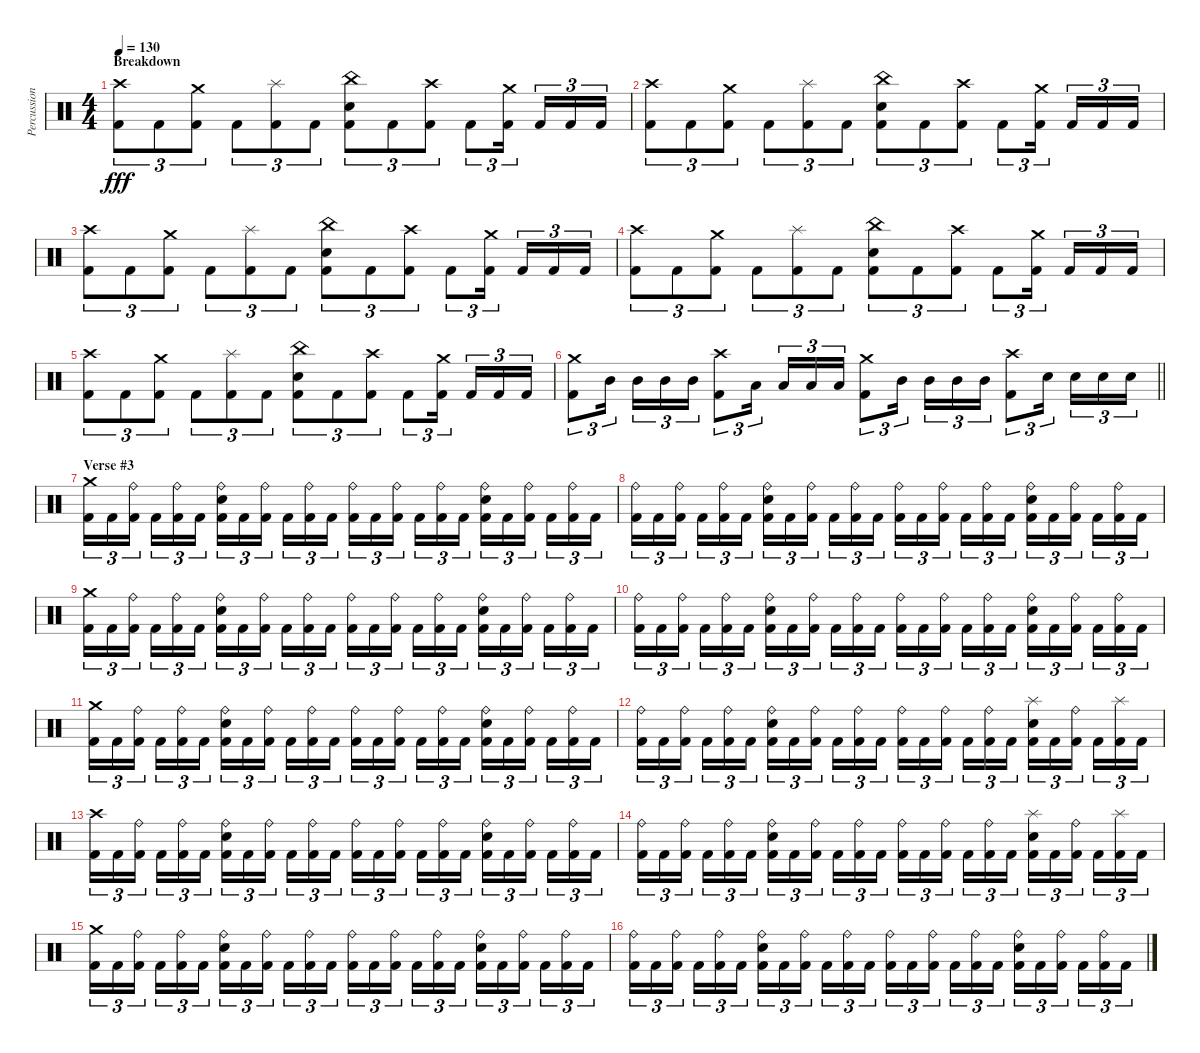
\track ("Percussions" "Percussion") {instrument percussion}
\staff {score}
\articulation defaults
\ts (4 4)
\section ("" "Breakdown")
\tempo 130
\clef neutral
\ks c
("Crash high (hit)" "Kick (hit) 2").8{tu (3 2) dy fff} "Kick (hit) 2".8{tu (3 2)} ("Crash medium (hit)" "Kick (hit) 2").8{tu (3 2)} "Kick (hit) 2".8{tu (3 2)} ("Splash (hit)" "Kick (hit) 2").8{tu (3 2)} "Kick (hit) 2".8{tu (3 2)} ("China (hit)" "Snare (hit) 2" "Kick (hit) 2").8{tu (3 2)} "Kick (hit) 2".8{tu (3 2)} ("Crash high (hit)" "Kick (hit) 2").8{tu (3 2)} "Kick (hit) 2".8{tu (3 2)} ("Crash medium (hit)" "Kick (hit) 2").16{tu (3 2) beam splitsecondary} "Kick (hit) 2".16{tu (3 2)} "Kick (hit) 2".16{tu (3 2)} "Kick (hit) 2".16{tu (3 2)} |
("Crash high (hit)" "Kick (hit) 2").8{tu (3 2)} "Kick (hit) 2".8{tu (3 2)} ("Crash medium (hit)" "Kick (hit) 2").8{tu (3 2)} "Kick (hit) 2".8{tu (3 2)} ("Splash (hit)" "Kick (hit) 2").8{tu (3 2)} "Kick (hit) 2".8{tu (3 2)} ("China (hit)" "Snare (hit) 2" "Kick (hit) 2").8{tu (3 2)} "Kick (hit) 2".8{tu (3 2)} ("Crash high (hit)" "Kick (hit) 2").8{tu (3 2)} "Kick (hit) 2".8{tu (3 2)} ("Crash medium (hit)" "Kick (hit) 2").16{tu (3 2) beam splitsecondary} "Kick (hit) 2".16{tu (3 2)} "Kick (hit) 2".16{tu (3 2)} "Kick (hit) 2".16{tu (3 2)} |
("Crash high (hit)" "Kick (hit) 2").8{tu (3 2)} "Kick (hit) 2".8{tu (3 2)} ("Crash medium (hit)" "Kick (hit) 2").8{tu (3 2)} "Kick (hit) 2".8{tu (3 2)} ("Splash (hit)" "Kick (hit) 2").8{tu (3 2)} "Kick (hit) 2".8{tu (3 2)} ("China (hit)" "Snare (hit) 2" "Kick (hit) 2").8{tu (3 2)} "Kick (hit) 2".8{tu (3 2)} ("Crash high (hit)" "Kick (hit) 2").8{tu (3 2)} "Kick (hit) 2".8{tu (3 2)} ("Crash medium (hit)" "Kick (hit) 2").16{tu (3 2) beam splitsecondary} "Kick (hit) 2".16{tu (3 2)} "Kick (hit) 2".16{tu (3 2)} "Kick (hit) 2".16{tu (3 2)} |
("Crash high (hit)" "Kick (hit) 2").8{tu (3 2)} "Kick (hit) 2".8{tu (3 2)} ("Crash medium (hit)" "Kick (hit) 2").8{tu (3 2)} "Kick (hit) 2".8{tu (3 2)} ("Splash (hit)" "Kick (hit) 2").8{tu (3 2)} "Kick (hit) 2".8{tu (3 2)} ("China (hit)" "Snare (hit) 2" "Kick (hit) 2").8{tu (3 2)} "Kick (hit) 2".8{tu (3 2)} ("Crash high (hit)" "Kick (hit) 2").8{tu (3 2)} "Kick (hit) 2".8{tu (3 2)} ("Crash medium (hit)" "Kick (hit) 2").16{tu (3 2) beam splitsecondary} "Kick (hit) 2".16{tu (3 2)} "Kick (hit) 2".16{tu (3 2)} "Kick (hit) 2".16{tu (3 2)} |
("Crash high (hit)" "Kick (hit) 2").8{tu (3 2)} "Kick (hit) 2".8{tu (3 2)} ("Crash medium (hit)" "Kick (hit) 2").8{tu (3 2)} "Kick (hit) 2".8{tu (3 2)} ("Splash (hit)" "Kick (hit) 2").8{tu (3 2)} "Kick (hit) 2".8{tu (3 2)} ("China (hit)" "Snare (hit) 2" "Kick (hit) 2").8{tu (3 2)} "Kick (hit) 2".8{tu (3 2)} ("Crash high (hit)" "Kick (hit) 2").8{tu (3 2)} "Kick (hit) 2".8{tu (3 2)} ("Crash medium (hit)" "Kick (hit) 2").16{tu (3 2) beam splitsecondary} "Kick (hit) 2".16{tu (3 2)} "Kick (hit) 2".16{tu (3 2)} "Kick (hit) 2".16{tu (3 2)} |
\barLineRight lightlight
("Crash medium (hit)" "Kick (hit) 2").8{tu (3 2)} "Mid Tom (hit)".16{tu (3 2) beam splitsecondary} "Mid Tom (hit)".16{tu (3 2)} "Mid Tom (hit)".16{tu (3 2)} "Mid Tom (hit)".16{tu (3 2)} ("Crash high (hit)" "Kick (hit) 2").8{tu (3 2)} "Low Tom (hit)".16{tu (3 2) beam splitsecondary} "Low Tom (hit)".16{tu (3 2)} "Low Tom (hit)".16{tu (3 2)} "Low Tom (hit)".16{tu (3 2)} ("Crash medium (hit)" "Kick (hit) 2").8{tu (3 2)} "Mid Tom (hit)".16{tu (3 2) beam splitsecondary} "Mid Tom (hit)".16{tu (3 2)} "Mid Tom (hit)".16{tu (3 2)} "Mid Tom (hit)".16{tu (3 2)} ("Crash high (hit)" "Kick (hit) 2").8{tu (3 2)} "Snare (hit) 2".16{tu (3 2) beam splitsecondary} "Snare (hit) 2".16{tu (3 2)} "Snare (hit) 2".16{tu (3 2)} "Snare (hit) 2".16{tu (3 2)} |
\section ("" "Verse #3")
("Crash medium (hit)" "Kick (hit) 2").16{tu (3 2)} "Kick (hit) 2".16{tu (3 2)} ("Ride (bell)" "Kick (hit) 2").16{tu (3 2) beam splitsecondary} "Kick (hit) 2".16{tu (3 2)} ("Ride (bell)" "Kick (hit) 2").16{tu (3 2)} "Kick (hit) 2".16{tu (3 2)} ("Ride (bell)" "Snare (hit) 2" "Kick (hit) 2").16{tu (3 2)} "Kick (hit) 2".16{tu (3 2)} ("Ride (bell)" "Kick (hit) 2").16{tu (3 2) beam splitsecondary} "Kick (hit) 2".16{tu (3 2)} ("Ride (bell)" "Kick (hit) 2").16{tu (3 2)} "Kick (hit) 2".16{tu (3 2)} ("Ride (bell)" "Kick (hit) 2").16{tu (3 2)} "Kick (hit) 2".16{tu (3 2)} ("Ride (bell)" "Kick (hit) 2").16{tu (3 2) beam splitsecondary} "Kick (hit) 2".16{tu (3 2)} ("Ride (bell)" "Kick (hit) 2").16{tu (3 2)} "Kick (hit) 2".16{tu (3 2)} ("Ride (bell)" "Snare (hit) 2" "Kick (hit) 2").16{tu (3 2)} "Kick (hit) 2".16{tu (3 2)} ("Ride (bell)" "Kick (hit) 2").16{tu (3 2) beam splitsecondary} "Kick (hit) 2".16{tu (3 2)} ("Ride (bell)" "Kick (hit) 2").16{tu (3 2)} "Kick (hit) 2".16{tu (3 2)} |
("Ride (bell)" "Kick (hit) 2").16{tu (3 2)} "Kick (hit) 2".16{tu (3 2)} ("Ride (bell)" "Kick (hit) 2").16{tu (3 2) beam splitsecondary} "Kick (hit) 2".16{tu (3 2)} ("Ride (bell)" "Kick (hit) 2").16{tu (3 2)} "Kick (hit) 2".16{tu (3 2)} ("Ride (bell)" "Snare (hit) 2" "Kick (hit) 2").16{tu (3 2)} "Kick (hit) 2".16{tu (3 2)} ("Ride (bell)" "Kick (hit) 2").16{tu (3 2) beam splitsecondary} "Kick (hit) 2".16{tu (3 2)} ("Ride (bell)" "Kick (hit) 2").16{tu (3 2)} "Kick (hit) 2".16{tu (3 2)} ("Ride (bell)" "Kick (hit) 2").16{tu (3 2)} "Kick (hit) 2".16{tu (3 2)} ("Ride (bell)" "Kick (hit) 2").16{tu (3 2) beam splitsecondary} "Kick (hit) 2".16{tu (3 2)} ("Ride (bell)" "Kick (hit) 2").16{tu (3 2)} "Kick (hit) 2".16{tu (3 2)} ("Ride (bell)" "Snare (hit) 2" "Kick (hit) 2").16{tu (3 2)} "Kick (hit) 2".16{tu (3 2)} ("Ride (bell)" "Kick (hit) 2").16{tu (3 2) beam splitsecondary} "Kick (hit) 2".16{tu (3 2)} ("Ride (bell)" "Kick (hit) 2").16{tu (3 2)} "Kick (hit) 2".16{tu (3 2)} |
("Crash medium (hit)" "Kick (hit) 2").16{tu (3 2)} "Kick (hit) 2".16{tu (3 2)} ("Ride (bell)" "Kick (hit) 2").16{tu (3 2) beam splitsecondary} "Kick (hit) 2".16{tu (3 2)} ("Ride (bell)" "Kick (hit) 2").16{tu (3 2)} "Kick (hit) 2".16{tu (3 2)} ("Ride (bell)" "Snare (hit) 2" "Kick (hit) 2").16{tu (3 2)} "Kick (hit) 2".16{tu (3 2)} ("Ride (bell)" "Kick (hit) 2").16{tu (3 2) beam splitsecondary} "Kick (hit) 2".16{tu (3 2)} ("Ride (bell)" "Kick (hit) 2").16{tu (3 2)} "Kick (hit) 2".16{tu (3 2)} ("Ride (bell)" "Kick (hit) 2").16{tu (3 2)} "Kick (hit) 2".16{tu (3 2)} ("Ride (bell)" "Kick (hit) 2").16{tu (3 2) beam splitsecondary} "Kick (hit) 2".16{tu (3 2)} ("Ride (bell)" "Kick (hit) 2").16{tu (3 2)} "Kick (hit) 2".16{tu (3 2)} ("Ride (bell)" "Snare (hit) 2" "Kick (hit) 2").16{tu (3 2)} "Kick (hit) 2".16{tu (3 2)} ("Ride (bell)" "Kick (hit) 2").16{tu (3 2) beam splitsecondary} "Kick (hit) 2".16{tu (3 2)} ("Ride (bell)" "Kick (hit) 2").16{tu (3 2)} "Kick (hit) 2".16{tu (3 2)} |
("Ride (bell)" "Kick (hit) 2").16{tu (3 2)} "Kick (hit) 2".16{tu (3 2)} ("Ride (bell)" "Kick (hit) 2").16{tu (3 2) beam splitsecondary} "Kick (hit) 2".16{tu (3 2)} ("Ride (bell)" "Kick (hit) 2").16{tu (3 2)} "Kick (hit) 2".16{tu (3 2)} ("Ride (bell)" "Snare (hit) 2" "Kick (hit) 2").16{tu (3 2)} "Kick (hit) 2".16{tu (3 2)} ("Ride (bell)" "Kick (hit) 2").16{tu (3 2) beam splitsecondary} "Kick (hit) 2".16{tu (3 2)} ("Ride (bell)" "Kick (hit) 2").16{tu (3 2)} "Kick (hit) 2".16{tu (3 2)} ("Ride (bell)" "Kick (hit) 2").16{tu (3 2)} "Kick (hit) 2".16{tu (3 2)} ("Ride (bell)" "Kick (hit) 2").16{tu (3 2) beam splitsecondary} "Kick (hit) 2".16{tu (3 2)} ("Ride (bell)" "Kick (hit) 2").16{tu (3 2)} "Kick (hit) 2".16{tu (3 2)} ("Ride (bell)" "Snare (hit) 2" "Kick (hit) 2").16{tu (3 2)} "Kick (hit) 2".16{tu (3 2)} ("Ride (bell)" "Kick (hit) 2").16{tu (3 2) beam splitsecondary} "Kick (hit) 2".16{tu (3 2)} ("Ride (bell)" "Kick (hit) 2").16{tu (3 2)} "Kick (hit) 2".16{tu (3 2)} |
("Crash medium (hit)" "Kick (hit) 2").16{tu (3 2)} "Kick (hit) 2".16{tu (3 2)} ("Ride (bell)" "Kick (hit) 2").16{tu (3 2) beam splitsecondary} "Kick (hit) 2".16{tu (3 2)} ("Ride (bell)" "Kick (hit) 2").16{tu (3 2)} "Kick (hit) 2".16{tu (3 2)} ("Ride (bell)" "Snare (hit) 2" "Kick (hit) 2").16{tu (3 2)} "Kick (hit) 2".16{tu (3 2)} ("Ride (bell)" "Kick (hit) 2").16{tu (3 2) beam splitsecondary} "Kick (hit) 2".16{tu (3 2)} ("Ride (bell)" "Kick (hit) 2").16{tu (3 2)} "Kick (hit) 2".16{tu (3 2)} ("Ride (bell)" "Kick (hit) 2").16{tu (3 2)} "Kick (hit) 2".16{tu (3 2)} ("Ride (bell)" "Kick (hit) 2").16{tu (3 2) beam splitsecondary} "Kick (hit) 2".16{tu (3 2)} ("Ride (bell)" "Kick (hit) 2").16{tu (3 2)} "Kick (hit) 2".16{tu (3 2)} ("Ride (bell)" "Snare (hit) 2" "Kick (hit) 2").16{tu (3 2)} "Kick (hit) 2".16{tu (3 2)} ("Ride (bell)" "Kick (hit) 2").16{tu (3 2) beam splitsecondary} "Kick (hit) 2".16{tu (3 2)} ("Ride (bell)" "Kick (hit) 2").16{tu (3 2)} "Kick (hit) 2".16{tu (3 2)} |
("Ride (bell)" "Kick (hit) 2").16{tu (3 2)} "Kick (hit) 2".16{tu (3 2)} ("Ride (bell)" "Kick (hit) 2").16{tu (3 2) beam splitsecondary} "Kick (hit) 2".16{tu (3 2)} ("Ride (bell)" "Kick (hit) 2").16{tu (3 2)} "Kick (hit) 2".16{tu (3 2)} ("Ride (bell)" "Snare (hit) 2" "Kick (hit) 2").16{tu (3 2)} "Kick (hit) 2".16{tu (3 2)} ("Ride (bell)" "Kick (hit) 2").16{tu (3 2) beam splitsecondary} "Kick (hit) 2".16{tu (3 2)} ("Ride (bell)" "Kick (hit) 2").16{tu (3 2)} "Kick (hit) 2".16{tu (3 2)} ("Ride (bell)" "Kick (hit) 2").16{tu (3 2)} "Kick (hit) 2".16{tu (3 2)} ("Ride (bell)" "Kick (hit) 2").16{tu (3 2) beam splitsecondary} "Kick (hit) 2".16{tu (3 2)} ("Ride (bell)" "Kick (hit) 2").16{tu (3 2)} "Kick (hit) 2".16{tu (3 2)} ("Splash (hit)" "Snare (hit) 2" "Kick (hit) 2").16{tu (3 2)} "Kick (hit) 2".16{tu (3 2)} ("Ride (bell)" "Kick (hit) 2").16{tu (3 2) beam splitsecondary} "Kick (hit) 2".16{tu (3 2)} ("Splash (hit)" "Kick (hit) 2").16{tu (3 2)} "Kick (hit) 2".16{tu (3 2)} |
("Crash high (hit)" "Kick (hit) 2").16{tu (3 2)} "Kick (hit) 2".16{tu (3 2)} ("Ride (bell)" "Kick (hit) 2").16{tu (3 2) beam splitsecondary} "Kick (hit) 2".16{tu (3 2)} ("Ride (bell)" "Kick (hit) 2").16{tu (3 2)} "Kick (hit) 2".16{tu (3 2)} ("Ride (bell)" "Snare (hit) 2" "Kick (hit) 2").16{tu (3 2)} "Kick (hit) 2".16{tu (3 2)} ("Ride (bell)" "Kick (hit) 2").16{tu (3 2) beam splitsecondary} "Kick (hit) 2".16{tu (3 2)} ("Ride (bell)" "Kick (hit) 2").16{tu (3 2)} "Kick (hit) 2".16{tu (3 2)} ("Ride (bell)" "Kick (hit) 2").16{tu (3 2)} "Kick (hit) 2".16{tu (3 2)} ("Ride (bell)" "Kick (hit) 2").16{tu (3 2) beam splitsecondary} "Kick (hit) 2".16{tu (3 2)} ("Ride (bell)" "Kick (hit) 2").16{tu (3 2)} "Kick (hit) 2".16{tu (3 2)} ("Ride (bell)" "Snare (hit) 2" "Kick (hit) 2").16{tu (3 2)} "Kick (hit) 2".16{tu (3 2)} ("Ride (bell)" "Kick (hit) 2").16{tu (3 2) beam splitsecondary} "Kick (hit) 2".16{tu (3 2)} ("Ride (bell)" "Kick (hit) 2").16{tu (3 2)} "Kick (hit) 2".16{tu (3 2)} |
("Ride (bell)" "Kick (hit) 2").16{tu (3 2)} "Kick (hit) 2".16{tu (3 2)} ("Ride (bell)" "Kick (hit) 2").16{tu (3 2) beam splitsecondary} "Kick (hit) 2".16{tu (3 2)} ("Ride (bell)" "Kick (hit) 2").16{tu (3 2)} "Kick (hit) 2".16{tu (3 2)} ("Ride (bell)" "Snare (hit) 2" "Kick (hit) 2").16{tu (3 2)} "Kick (hit) 2".16{tu (3 2)} ("Ride (bell)" "Kick (hit) 2").16{tu (3 2) beam splitsecondary} "Kick (hit) 2".16{tu (3 2)} ("Ride (bell)" "Kick (hit) 2").16{tu (3 2)} "Kick (hit) 2".16{tu (3 2)} ("Ride (bell)" "Kick (hit) 2").16{tu (3 2)} "Kick (hit) 2".16{tu (3 2)} ("Ride (bell)" "Kick (hit) 2").16{tu (3 2) beam splitsecondary} "Kick (hit) 2".16{tu (3 2)} ("Ride (bell)" "Kick (hit) 2").16{tu (3 2)} "Kick (hit) 2".16{tu (3 2)} ("Splash (hit)" "Snare (hit) 2" "Kick (hit) 2").16{tu (3 2)} "Kick (hit) 2".16{tu (3 2)} ("Ride (bell)" "Kick (hit) 2").16{tu (3 2) beam splitsecondary} "Kick (hit) 2".16{tu (3 2)} ("Splash (hit)" "Kick (hit) 2").16{tu (3 2)} "Kick (hit) 2".16{tu (3 2)} |
("Crash medium (hit)" "Kick (hit) 2").16{tu (3 2)} "Kick (hit) 2".16{tu (3 2)} ("Ride (bell)" "Kick (hit) 2").16{tu (3 2) beam splitsecondary} "Kick (hit) 2".16{tu (3 2)} ("Ride (bell)" "Kick (hit) 2").16{tu (3 2)} "Kick (hit) 2".16{tu (3 2)} ("Ride (bell)" "Snare (hit) 2" "Kick (hit) 2").16{tu (3 2)} "Kick (hit) 2".16{tu (3 2)} ("Ride (bell)" "Kick (hit) 2").16{tu (3 2) beam splitsecondary} "Kick (hit) 2".16{tu (3 2)} ("Ride (bell)" "Kick (hit) 2").16{tu (3 2)} "Kick (hit) 2".16{tu (3 2)} ("Ride (bell)" "Kick (hit) 2").16{tu (3 2)} "Kick (hit) 2".16{tu (3 2)} ("Ride (bell)" "Kick (hit) 2").16{tu (3 2) beam splitsecondary} "Kick (hit) 2".16{tu (3 2)} ("Ride (bell)" "Kick (hit) 2").16{tu (3 2)} "Kick (hit) 2".16{tu (3 2)} ("Ride (bell)" "Snare (hit) 2" "Kick (hit) 2").16{tu (3 2)} "Kick (hit) 2".16{tu (3 2)} ("Ride (bell)" "Kick (hit) 2").16{tu (3 2) beam splitsecondary} "Kick (hit) 2".16{tu (3 2)} ("Ride (bell)" "Kick (hit) 2").16{tu (3 2)} "Kick (hit) 2".16{tu (3 2)} |
("Ride (bell)" "Kick (hit) 2").16{tu (3 2)} "Kick (hit) 2".16{tu (3 2)} ("Ride (bell)" "Kick (hit) 2").16{tu (3 2) beam splitsecondary} "Kick (hit) 2".16{tu (3 2)} ("Ride (bell)" "Kick (hit) 2").16{tu (3 2)} "Kick (hit) 2".16{tu (3 2)} ("Ride (bell)" "Snare (hit) 2" "Kick (hit) 2").16{tu (3 2)} "Kick (hit) 2".16{tu (3 2)} ("Ride (bell)" "Kick (hit) 2").16{tu (3 2) beam splitsecondary} "Kick (hit) 2".16{tu (3 2)} ("Ride (bell)" "Kick (hit) 2").16{tu (3 2)} "Kick (hit) 2".16{tu (3 2)} ("Ride (bell)" "Kick (hit) 2").16{tu (3 2)} "Kick (hit) 2".16{tu (3 2)} ("Ride (bell)" "Kick (hit) 2").16{tu (3 2) beam splitsecondary} "Kick (hit) 2".16{tu (3 2)} ("Ride (bell)" "Kick (hit) 2").16{tu (3 2)} "Kick (hit) 2".16{tu (3 2)} ("Ride (bell)" "Snare (hit) 2" "Kick (hit) 2").16{tu (3 2)} "Kick (hit) 2".16{tu (3 2)} ("Ride (bell)" "Kick (hit) 2").16{tu (3 2) beam splitsecondary} "Kick (hit) 2".16{tu (3 2)} ("Ride (bell)" "Kick (hit) 2").16{tu (3 2)} "Kick (hit) 2".16{tu (3 2)}
